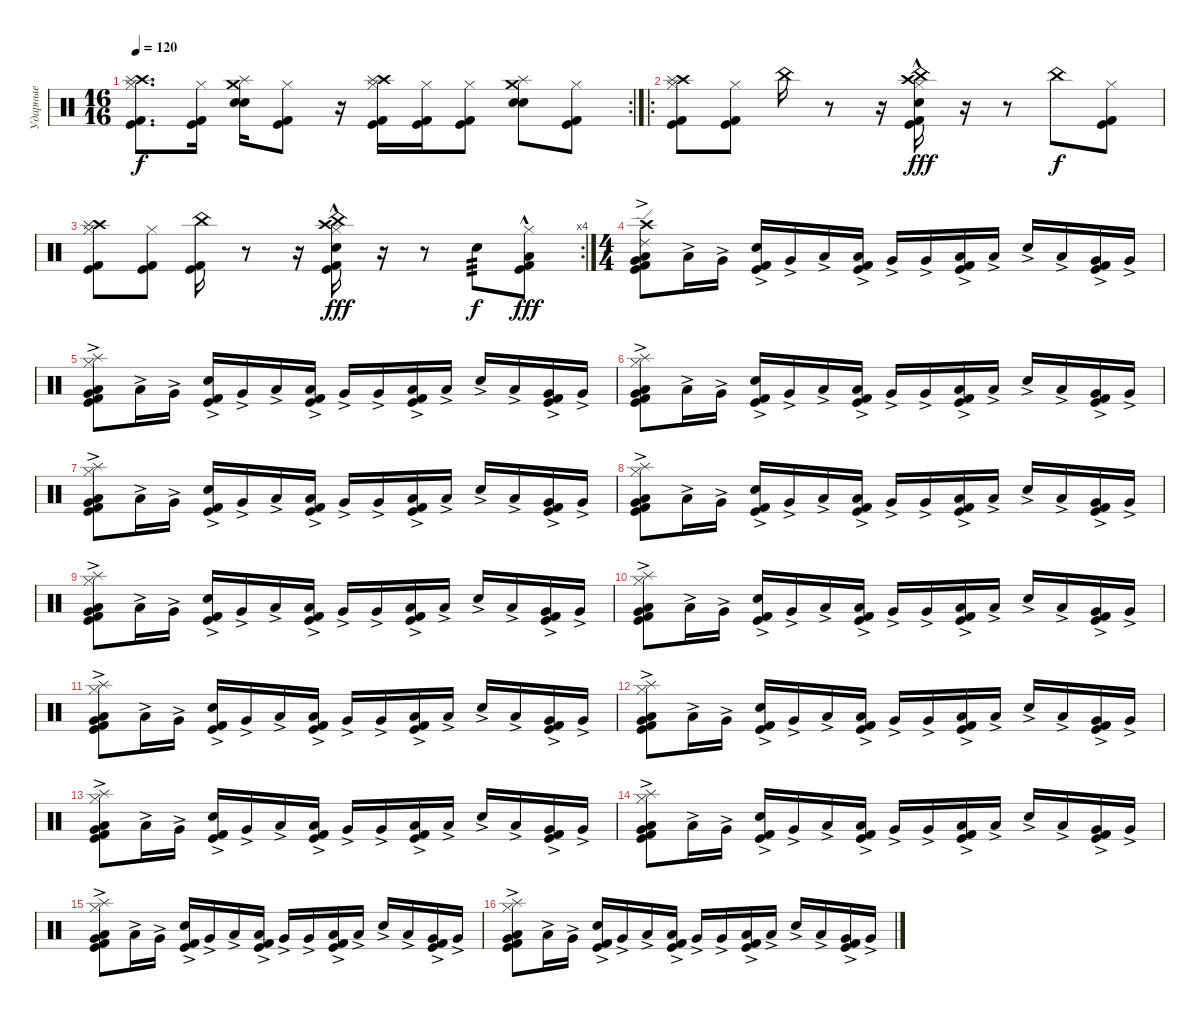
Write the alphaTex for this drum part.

\track ("Ударные" "Ударные") {instrument percussion}
\staff {score}
\articulation defaults
\rc 2
\ts (16 16)
\tempo 120
\clef neutral
\ks c
("Crash high (hit)" "Splash (hit)" "Hi-Hat (closed)" "Kick (hit)" "Kick (hit) 2").8{d dy f} ("Hi-Hat (closed)" "Kick (hit)" "Kick (hit) 2").16 ("Crash medium (hit)" "Splash (hit)" "Snare (hit) 2" "Electric Snare (hit)").16 ("Hi-Hat (closed)" "Kick (hit)" "Kick (hit) 2").8 r.16 ("Crash high (hit)" "Splash (hit)" "Hi-Hat (closed)" "Kick (hit)" "Kick (hit) 2").16 ("Hi-Hat (closed)" "Kick (hit)" "Kick (hit) 2").16 ("Hi-Hat (closed)" "Kick (hit)" "Kick (hit) 2").8 ("Crash medium (hit)" "Splash (hit)" "Snare (hit) 2" "Electric Snare (hit)").8 ("Hi-Hat (closed)" "Kick (hit)" "Kick (hit) 2").8 |
\ro
("Crash high (hit)" "Splash (hit)" "Hi-Hat (closed)" "Kick (hit)" "Kick (hit) 2").8 ("Hi-Hat (closed)" "Kick (hit)" "Kick (hit) 2").8 "China (hit)".16 r.8 r.16 ("Crash high (hit)" "China (hit)" "Electric Snare (hit)"{hac} "Hi-Hat (closed)" "Kick (hit)" "Kick (hit) 2").16{dy fff} r.16 r.8 "China (hit)".8{dy f} ("Hi-Hat (closed)" "Kick (hit)" "Kick (hit) 2").8 |
\rc 4
("Crash high (hit)" "Splash (hit)" "Hi-Hat (closed)" "Kick (hit)" "Kick (hit) 2").8 ("Hi-Hat (closed)" "Kick (hit)" "Kick (hit) 2").8 ("China (hit)" "Kick (hit)" "Kick (hit) 2").16 r.8 r.16 ("Crash high (hit)" "China (hit)" "Electric Snare (hit)"{hac} "Hi-Hat (closed)" "Kick (hit)" "Kick (hit) 2").16{dy fff} r.16 r.8 "Electric Snare (hit)".8{tp 3 dy f} ("Low Tom (hit)"{hac} "Hi-Hat (closed)" "Kick (hit)" "Kick (hit) 2").8{dy fff} |
\ts (4 4)
("Crash high (hit)" "Ride (edge) 2" "Very Low Tom (hit)" "Low Tom (hit)" "Kick (hit)"{ac} "Kick (hit) 2"{ac}).8 "Low Tom (hit)"{ac}.16 "Very Low Tom (hit)"{ac}.16 ("Electric Snare (hit)"{ac} "Kick (hit)"{ac} "Kick (hit) 2"{ac}).16 "Very Low Tom (hit)"{ac}.16 "Low Tom (hit)"{ac}.16 ("Low Tom (hit)"{ac} "Kick (hit)"{ac} "Kick (hit) 2"{ac}).16 "Very Low Tom (hit)"{ac}.16 "Very Low Tom (hit)"{ac}.16 ("Low Tom (hit)"{ac} "Kick (hit)"{ac} "Kick (hit) 2"{ac}).16 "Low Tom (hit)"{ac}.16 "Electric Snare (hit)"{ac}.16 "Low Tom (hit)"{ac}.16 ("Very Low Tom (hit)"{ac} "Kick (hit)"{ac} "Kick (hit) 2"{ac}).16 "Very Low Tom (hit)"{ac}.16 |
("Hi-Hat (closed)" "Splash (hit)" "Very Low Tom (hit)" "Low Tom (hit)" "Kick (hit)"{ac} "Kick (hit) 2"{ac}).8 "Low Tom (hit)"{ac}.16 "Very Low Tom (hit)"{ac}.16 ("Electric Snare (hit)"{ac} "Kick (hit)"{ac} "Kick (hit) 2"{ac}).16 "Very Low Tom (hit)"{ac}.16 "Low Tom (hit)"{ac}.16 ("Low Tom (hit)"{ac} "Kick (hit)"{ac} "Kick (hit) 2"{ac}).16 "Very Low Tom (hit)"{ac}.16 "Very Low Tom (hit)"{ac}.16 ("Low Tom (hit)"{ac} "Kick (hit)"{ac} "Kick (hit) 2"{ac}).16 "Low Tom (hit)"{ac}.16 "Electric Snare (hit)"{ac}.16 "Low Tom (hit)"{ac}.16 ("Very Low Tom (hit)"{ac} "Kick (hit)"{ac} "Kick (hit) 2"{ac}).16 "Very Low Tom (hit)"{ac}.16 |
("Hi-Hat (closed)" "Splash (hit)" "Very Low Tom (hit)" "Low Tom (hit)" "Kick (hit)"{ac} "Kick (hit) 2"{ac}).8 "Low Tom (hit)"{ac}.16 "Very Low Tom (hit)"{ac}.16 ("Electric Snare (hit)"{ac} "Kick (hit)"{ac} "Kick (hit) 2"{ac}).16 "Very Low Tom (hit)"{ac}.16 "Low Tom (hit)"{ac}.16 ("Low Tom (hit)"{ac} "Kick (hit)"{ac} "Kick (hit) 2"{ac}).16 "Very Low Tom (hit)"{ac}.16 "Very Low Tom (hit)"{ac}.16 ("Low Tom (hit)"{ac} "Kick (hit)"{ac} "Kick (hit) 2"{ac}).16 "Low Tom (hit)"{ac}.16 "Electric Snare (hit)"{ac}.16 "Low Tom (hit)"{ac}.16 ("Very Low Tom (hit)"{ac} "Kick (hit)"{ac} "Kick (hit) 2"{ac}).16 "Very Low Tom (hit)"{ac}.16 |
("Hi-Hat (closed)" "Splash (hit)" "Very Low Tom (hit)" "Low Tom (hit)" "Kick (hit)"{ac} "Kick (hit) 2"{ac}).8 "Low Tom (hit)"{ac}.16 "Very Low Tom (hit)"{ac}.16 ("Electric Snare (hit)"{ac} "Kick (hit)"{ac} "Kick (hit) 2"{ac}).16 "Very Low Tom (hit)"{ac}.16 "Low Tom (hit)"{ac}.16 ("Low Tom (hit)"{ac} "Kick (hit)"{ac} "Kick (hit) 2"{ac}).16 "Very Low Tom (hit)"{ac}.16 "Very Low Tom (hit)"{ac}.16 ("Low Tom (hit)"{ac} "Kick (hit)"{ac} "Kick (hit) 2"{ac}).16 "Low Tom (hit)"{ac}.16 "Electric Snare (hit)"{ac}.16 "Low Tom (hit)"{ac}.16 ("Very Low Tom (hit)"{ac} "Kick (hit)"{ac} "Kick (hit) 2"{ac}).16 "Very Low Tom (hit)"{ac}.16 |
("Hi-Hat (closed)" "Splash (hit)" "Very Low Tom (hit)" "Low Tom (hit)" "Kick (hit)"{ac} "Kick (hit) 2"{ac}).8 "Low Tom (hit)"{ac}.16 "Very Low Tom (hit)"{ac}.16 ("Electric Snare (hit)"{ac} "Kick (hit)"{ac} "Kick (hit) 2"{ac}).16 "Very Low Tom (hit)"{ac}.16 "Low Tom (hit)"{ac}.16 ("Low Tom (hit)"{ac} "Kick (hit)"{ac} "Kick (hit) 2"{ac}).16 "Very Low Tom (hit)"{ac}.16 "Very Low Tom (hit)"{ac}.16 ("Low Tom (hit)"{ac} "Kick (hit)"{ac} "Kick (hit) 2"{ac}).16 "Low Tom (hit)"{ac}.16 "Electric Snare (hit)"{ac}.16 "Low Tom (hit)"{ac}.16 ("Very Low Tom (hit)"{ac} "Kick (hit)"{ac} "Kick (hit) 2"{ac}).16 "Very Low Tom (hit)"{ac}.16 |
("Hi-Hat (closed)" "Splash (hit)" "Very Low Tom (hit)" "Low Tom (hit)" "Kick (hit)"{ac} "Kick (hit) 2"{ac}).8 "Low Tom (hit)"{ac}.16 "Very Low Tom (hit)"{ac}.16 ("Electric Snare (hit)"{ac} "Kick (hit)"{ac} "Kick (hit) 2"{ac}).16 "Very Low Tom (hit)"{ac}.16 "Low Tom (hit)"{ac}.16 ("Low Tom (hit)"{ac} "Kick (hit)"{ac} "Kick (hit) 2"{ac}).16 "Very Low Tom (hit)"{ac}.16 "Very Low Tom (hit)"{ac}.16 ("Low Tom (hit)"{ac} "Kick (hit)"{ac} "Kick (hit) 2"{ac}).16 "Low Tom (hit)"{ac}.16 "Electric Snare (hit)"{ac}.16 "Low Tom (hit)"{ac}.16 ("Very Low Tom (hit)"{ac} "Kick (hit)"{ac} "Kick (hit) 2"{ac}).16 "Very Low Tom (hit)"{ac}.16 |
("Hi-Hat (closed)" "Splash (hit)" "Very Low Tom (hit)" "Low Tom (hit)" "Kick (hit)"{ac} "Kick (hit) 2"{ac}).8 "Low Tom (hit)"{ac}.16 "Very Low Tom (hit)"{ac}.16 ("Electric Snare (hit)"{ac} "Kick (hit)"{ac} "Kick (hit) 2"{ac}).16 "Very Low Tom (hit)"{ac}.16 "Low Tom (hit)"{ac}.16 ("Low Tom (hit)"{ac} "Kick (hit)"{ac} "Kick (hit) 2"{ac}).16 "Very Low Tom (hit)"{ac}.16 "Very Low Tom (hit)"{ac}.16 ("Low Tom (hit)"{ac} "Kick (hit)"{ac} "Kick (hit) 2"{ac}).16 "Low Tom (hit)"{ac}.16 "Electric Snare (hit)"{ac}.16 "Low Tom (hit)"{ac}.16 ("Very Low Tom (hit)"{ac} "Kick (hit)"{ac} "Kick (hit) 2"{ac}).16 "Very Low Tom (hit)"{ac}.16 |
("Hi-Hat (closed)" "Splash (hit)" "Very Low Tom (hit)" "Low Tom (hit)" "Kick (hit)"{ac} "Kick (hit) 2"{ac}).8 "Low Tom (hit)"{ac}.16 "Very Low Tom (hit)"{ac}.16 ("Electric Snare (hit)"{ac} "Kick (hit)"{ac} "Kick (hit) 2"{ac}).16 "Very Low Tom (hit)"{ac}.16 "Low Tom (hit)"{ac}.16 ("Low Tom (hit)"{ac} "Kick (hit)"{ac} "Kick (hit) 2"{ac}).16 "Very Low Tom (hit)"{ac}.16 "Very Low Tom (hit)"{ac}.16 ("Low Tom (hit)"{ac} "Kick (hit)"{ac} "Kick (hit) 2"{ac}).16 "Low Tom (hit)"{ac}.16 "Electric Snare (hit)"{ac}.16 "Low Tom (hit)"{ac}.16 ("Very Low Tom (hit)"{ac} "Kick (hit)"{ac} "Kick (hit) 2"{ac}).16 "Very Low Tom (hit)"{ac}.16 |
("Hi-Hat (closed)" "Splash (hit)" "Very Low Tom (hit)" "Low Tom (hit)" "Kick (hit)"{ac} "Kick (hit) 2"{ac}).8 "Low Tom (hit)"{ac}.16 "Very Low Tom (hit)"{ac}.16 ("Electric Snare (hit)"{ac} "Kick (hit)"{ac} "Kick (hit) 2"{ac}).16 "Very Low Tom (hit)"{ac}.16 "Low Tom (hit)"{ac}.16 ("Low Tom (hit)"{ac} "Kick (hit)"{ac} "Kick (hit) 2"{ac}).16 "Very Low Tom (hit)"{ac}.16 "Very Low Tom (hit)"{ac}.16 ("Low Tom (hit)"{ac} "Kick (hit)"{ac} "Kick (hit) 2"{ac}).16 "Low Tom (hit)"{ac}.16 "Electric Snare (hit)"{ac}.16 "Low Tom (hit)"{ac}.16 ("Very Low Tom (hit)"{ac} "Kick (hit)"{ac} "Kick (hit) 2"{ac}).16 "Very Low Tom (hit)"{ac}.16 |
("Hi-Hat (closed)" "Splash (hit)" "Very Low Tom (hit)" "Low Tom (hit)" "Kick (hit)"{ac} "Kick (hit) 2"{ac}).8 "Low Tom (hit)"{ac}.16 "Very Low Tom (hit)"{ac}.16 ("Electric Snare (hit)"{ac} "Kick (hit)"{ac} "Kick (hit) 2"{ac}).16 "Very Low Tom (hit)"{ac}.16 "Low Tom (hit)"{ac}.16 ("Low Tom (hit)"{ac} "Kick (hit)"{ac} "Kick (hit) 2"{ac}).16 "Very Low Tom (hit)"{ac}.16 "Very Low Tom (hit)"{ac}.16 ("Low Tom (hit)"{ac} "Kick (hit)"{ac} "Kick (hit) 2"{ac}).16 "Low Tom (hit)"{ac}.16 "Electric Snare (hit)"{ac}.16 "Low Tom (hit)"{ac}.16 ("Very Low Tom (hit)"{ac} "Kick (hit)"{ac} "Kick (hit) 2"{ac}).16 "Very Low Tom (hit)"{ac}.16 |
("Hi-Hat (closed)" "Splash (hit)" "Very Low Tom (hit)" "Low Tom (hit)" "Kick (hit)"{ac} "Kick (hit) 2"{ac}).8 "Low Tom (hit)"{ac}.16 "Very Low Tom (hit)"{ac}.16 ("Electric Snare (hit)"{ac} "Kick (hit)"{ac} "Kick (hit) 2"{ac}).16 "Very Low Tom (hit)"{ac}.16 "Low Tom (hit)"{ac}.16 ("Low Tom (hit)"{ac} "Kick (hit)"{ac} "Kick (hit) 2"{ac}).16 "Very Low Tom (hit)"{ac}.16 "Very Low Tom (hit)"{ac}.16 ("Low Tom (hit)"{ac} "Kick (hit)"{ac} "Kick (hit) 2"{ac}).16 "Low Tom (hit)"{ac}.16 "Electric Snare (hit)"{ac}.16 "Low Tom (hit)"{ac}.16 ("Very Low Tom (hit)"{ac} "Kick (hit)"{ac} "Kick (hit) 2"{ac}).16 "Very Low Tom (hit)"{ac}.16 |
("Hi-Hat (closed)" "Splash (hit)" "Very Low Tom (hit)" "Low Tom (hit)" "Kick (hit)"{ac} "Kick (hit) 2"{ac}).8 "Low Tom (hit)"{ac}.16 "Very Low Tom (hit)"{ac}.16 ("Electric Snare (hit)"{ac} "Kick (hit)"{ac} "Kick (hit) 2"{ac}).16 "Very Low Tom (hit)"{ac}.16 "Low Tom (hit)"{ac}.16 ("Low Tom (hit)"{ac} "Kick (hit)"{ac} "Kick (hit) 2"{ac}).16 "Very Low Tom (hit)"{ac}.16 "Very Low Tom (hit)"{ac}.16 ("Low Tom (hit)"{ac} "Kick (hit)"{ac} "Kick (hit) 2"{ac}).16 "Low Tom (hit)"{ac}.16 "Electric Snare (hit)"{ac}.16 "Low Tom (hit)"{ac}.16 ("Very Low Tom (hit)"{ac} "Kick (hit)"{ac} "Kick (hit) 2"{ac}).16 "Very Low Tom (hit)"{ac}.16 |
("Hi-Hat (closed)" "Splash (hit)" "Very Low Tom (hit)" "Low Tom (hit)" "Kick (hit)"{ac} "Kick (hit) 2"{ac}).8{volume 13} "Low Tom (hit)"{ac}.16 "Very Low Tom (hit)"{ac}.16 ("Electric Snare (hit)"{ac} "Kick (hit)"{ac} "Kick (hit) 2"{ac}).16 "Very Low Tom (hit)"{ac}.16 "Low Tom (hit)"{ac}.16 ("Low Tom (hit)"{ac} "Kick (hit)"{ac} "Kick (hit) 2"{ac}).16 "Very Low Tom (hit)"{ac}.16 "Very Low Tom (hit)"{ac}.16 ("Low Tom (hit)"{ac} "Kick (hit)"{ac} "Kick (hit) 2"{ac}).16{volume 12} "Low Tom (hit)"{ac}.16 "Electric Snare (hit)"{ac}.16 "Low Tom (hit)"{ac}.16 ("Very Low Tom (hit)"{ac} "Kick (hit)"{ac} "Kick (hit) 2"{ac}).16 "Very Low Tom (hit)"{ac}.16
